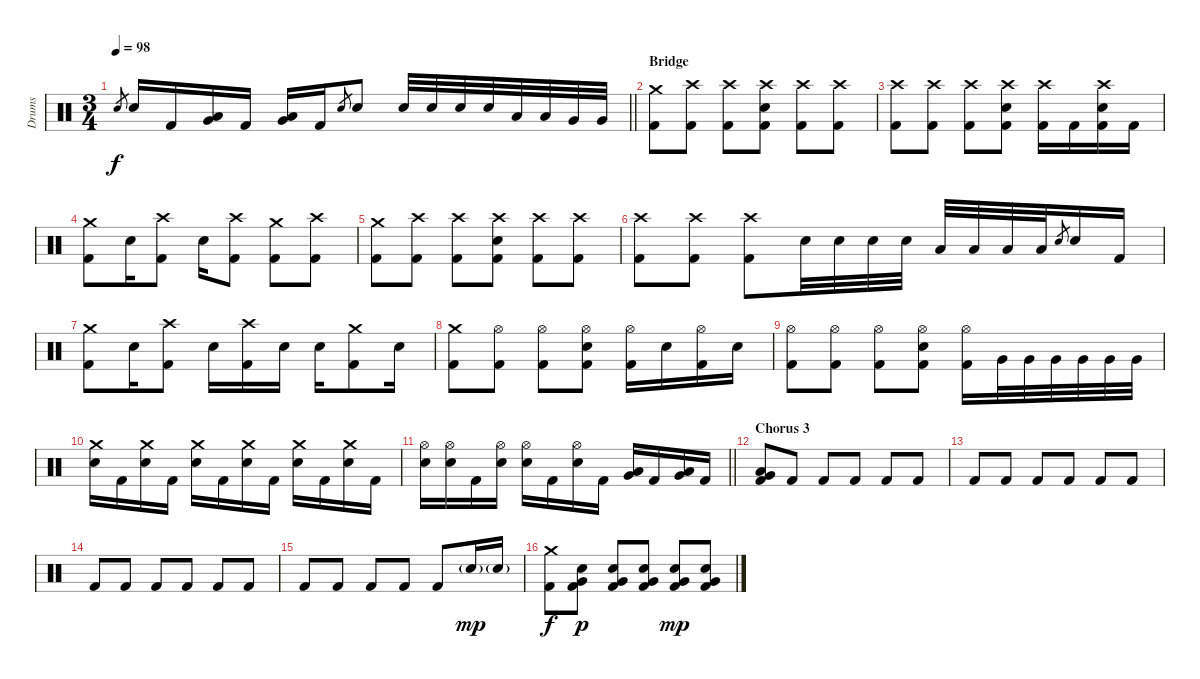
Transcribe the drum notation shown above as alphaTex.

\track ("Drums" "Drums") {instrument percussion}
\staff {score}
\articulation defaults
\ts (3 4)
\tempo 98
\clef neutral
\barLineRight lightlight
\ks c "Electric Snare (hit)".8{gr dy f} "Electric Snare (hit)".16 "Kick (hit) 2".16
("Low Tom (hit)" "Very Low Tom (hit)").16 "Kick (hit) 2".16 ("Low Floor Tom (hit)" "Very Low Tom (hit)").16 "Kick (hit) 2".16 "Electric Snare (hit)".8{gr} "Electric Snare (hit)".8 "Electric Snare (hit)".32 "Electric Snare (hit)".32 "Electric Snare (hit)".32 "Electric Snare (hit)".32 "Low Tom (hit)".32 "Low Tom (hit)".32 "Very Low Tom (hit)".32 "Very Low Tom (hit)".32 |
\section ("" "Bridge ")
("Crash medium (hit)" "Kick (hit) 2").8 ("Crash high (hit)" "Kick (hit) 2").8 ("Crash high (hit)" "Kick (hit) 2").8 ("Crash high (hit)" "Electric Snare (hit)" "Kick (hit) 2").8 ("Crash high (hit)" "Kick (hit) 2").8 ("Crash high (hit)" "Kick (hit) 2").8 |
("Crash high (hit)" "Kick (hit) 2").8 ("Crash high (hit)" "Kick (hit) 2").8 ("Crash high (hit)" "Kick (hit) 2").8 ("Crash high (hit)" "Electric Snare (hit)" "Kick (hit) 2").8 ("Crash high (hit)" "Kick (hit) 2").16 "Kick (hit) 2".16 ("Crash high (hit)" "Electric Snare (hit)" "Kick (hit) 2").16 "Kick (hit) 2".16 |
("Crash medium (hit)" "Kick (hit) 2").8 "Electric Snare (hit)".16 ("Crash high (hit)" "Kick (hit) 2").8 "Electric Snare (hit)".16 ("Crash high (hit)" "Kick (hit) 2").8 ("Crash medium (hit)" "Kick (hit) 2").8 ("Crash high (hit)" "Kick (hit) 2").8 |
("Crash medium (hit)" "Kick (hit) 2").8 ("Crash high (hit)" "Kick (hit) 2").8 ("Crash high (hit)" "Kick (hit) 2").8 ("Crash high (hit)" "Electric Snare (hit)" "Kick (hit) 2").8 ("Crash high (hit)" "Kick (hit) 2").8 ("Crash high (hit)" "Kick (hit) 2").8 |
("Crash high (hit)" "Kick (hit) 2").8 ("Crash high (hit)" "Kick (hit) 2").8 ("Crash high (hit)" "Kick (hit) 2").8 "Electric Snare (hit)".32 "Electric Snare (hit)".32 "Electric Snare (hit)".32 "Electric Snare (hit)".32 "Low Tom (hit)".32 "Low Tom (hit)".32 "Low Tom (hit)".32 "Low Tom (hit)".32 "Electric Snare (hit)".8{gr} "Electric Snare (hit)".16 "Kick (hit) 2".16 |
("Crash medium (hit)" "Kick (hit) 2").8 "Electric Snare (hit)".16 ("Crash high (hit)" "Kick (hit) 2").8 "Electric Snare (hit)".16 ("Crash high (hit)" "Kick (hit) 2").16 "Electric Snare (hit)".16 "Electric Snare (hit)".16 ("Crash medium (hit)" "Kick (hit) 2").8 "Electric Snare (hit)".16 |
("Crash medium (hit)" "Kick (hit) 2").8 ("Hi-Hat (open)" "Kick (hit) 2").8 ("Hi-Hat (open)" "Kick (hit) 2").8 ("Hi-Hat (open)" "Electric Snare (hit)" "Kick (hit) 2").8 ("Hi-Hat (open)" "Kick (hit) 2").16 "Electric Snare (hit)".16 ("Hi-Hat (open)" "Kick (hit) 2").16 "Electric Snare (hit)".16 |
("Hi-Hat (open)" "Kick (hit) 2").8 ("Hi-Hat (open)" "Kick (hit) 2").8 ("Hi-Hat (open)" "Kick (hit) 2").8 ("Hi-Hat (open)" "Electric Snare (hit)" "Kick (hit) 2").8 ("Hi-Hat (open)" "Kick (hit) 2").16 "Very Low Tom (hit)".32 "Very Low Tom (hit)".32 "Very Low Tom (hit)".32 "Very Low Tom (hit)".32 "Very Low Tom (hit)".32 "Very Low Tom (hit)".32 |
("Crash medium (hit)" "Electric Snare (hit)").16 "Kick (hit) 2".16 ("Crash medium (hit)" "Electric Snare (hit)").16 "Kick (hit) 2".16 ("Crash medium (hit)" "Electric Snare (hit)").16 "Kick (hit) 2".16 ("Crash medium (hit)" "Electric Snare (hit)").16 "Kick (hit) 2".16 ("Crash medium (hit)" "Electric Snare (hit)").16 "Kick (hit) 2".16 ("Crash medium (hit)" "Electric Snare (hit)").16 "Kick (hit) 2".16 |
\barLineRight lightlight
("Hi-Hat (open)" "Electric Snare (hit)").16 ("Hi-Hat (open)" "Electric Snare (hit)").16 "Kick (hit) 2".16 ("Hi-Hat (open)" "Electric Snare (hit)").16 ("Hi-Hat (open)" "Electric Snare (hit)").16 "Kick (hit) 2".16 ("Hi-Hat (open)" "Electric Snare (hit)").16 "Kick (hit) 2".16 ("Very Low Tom (hit)" "Low Tom (hit)").16 "Kick (hit) 2".16 ("Very Low Tom (hit)" "Low Floor Tom (hit)").16 "Kick (hit) 2".16 |
\section ("" "Chorus 3")
("Very Low Tom (hit)" "Low Floor Tom (hit)" "Kick (hit) 2").8 "Kick (hit) 2".8 "Kick (hit) 2".8 "Kick (hit) 2".8 "Kick (hit) 2".8 "Kick (hit) 2".8 |
"Kick (hit) 2".8 "Kick (hit) 2".8 "Kick (hit) 2".8 "Kick (hit) 2".8 "Kick (hit) 2".8 "Kick (hit) 2".8 |
"Kick (hit) 2".8 "Kick (hit) 2".8 "Kick (hit) 2".8 "Kick (hit) 2".8 "Kick (hit) 2".8 "Kick (hit) 2".8 |
"Kick (hit) 2".8 "Kick (hit) 2".8 "Kick (hit) 2".8 "Kick (hit) 2".8 "Kick (hit) 2".8 "Electric Snare (hit)"{g}.16{dy mp} "Electric Snare (hit)"{g}.16 |
("Crash medium (hit)" "Kick (hit) 2").8{dy f} ("Very Low Tom (hit)" "Electric Snare (hit)" "Kick (hit) 2").8{dy p} ("Very Low Tom (hit)" "Electric Snare (hit)" "Kick (hit) 2").8 ("Very Low Tom (hit)" "Electric Snare (hit)" "Kick (hit) 2").8 ("Very Low Tom (hit)" "Electric Snare (hit)" "Kick (hit) 2").8{dy mp} ("Very Low Tom (hit)" "Electric Snare (hit)" "Kick (hit) 2").8
